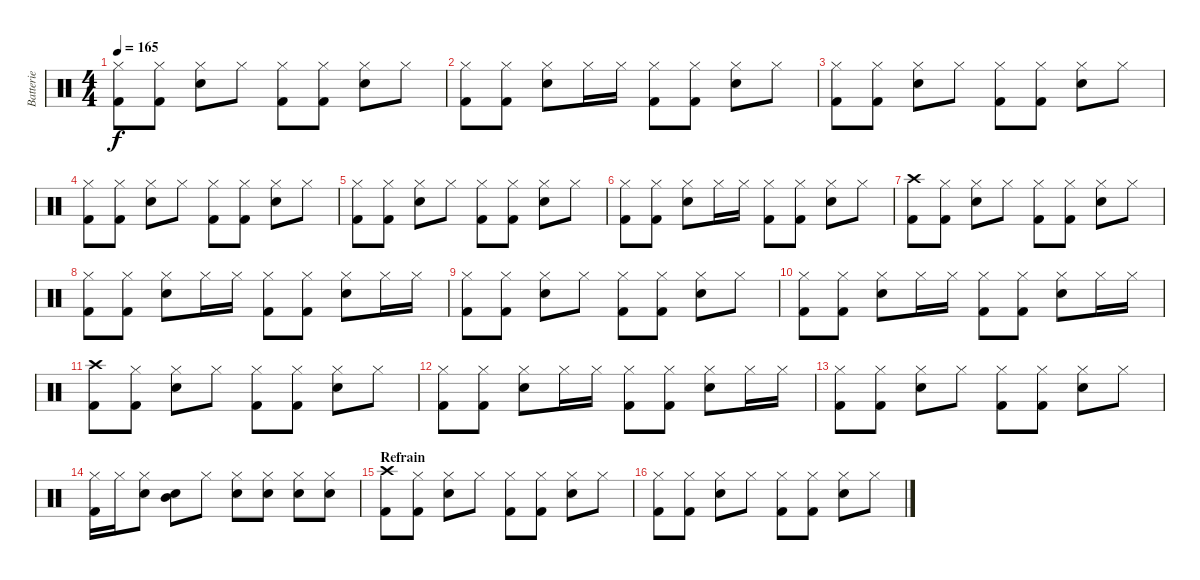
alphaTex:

\track ("Batterie" "Batterie") {instrument percussion}
\staff {score}
\articulation defaults
\ts (4 4)
\tempo 165
\clef neutral
\ks c
("Hi-Hat (closed)" "Kick (hit) 2").8{dy f} ("Hi-Hat (closed)" "Kick (hit) 2").8 ("Hi-Hat (closed)" "Electric Snare (hit)").8 "Hi-Hat (closed)".8 ("Hi-Hat (closed)" "Kick (hit) 2").8 ("Hi-Hat (closed)" "Kick (hit) 2").8 ("Hi-Hat (closed)" "Electric Snare (hit)").8 "Hi-Hat (closed)".8 |
("Hi-Hat (closed)" "Kick (hit) 2").8 ("Hi-Hat (closed)" "Kick (hit) 2").8 ("Hi-Hat (closed)" "Electric Snare (hit)").8 "Hi-Hat (closed)".16 "Hi-Hat (closed)".16 ("Hi-Hat (closed)" "Kick (hit) 2").8 ("Hi-Hat (closed)" "Kick (hit) 2").8 ("Hi-Hat (closed)" "Electric Snare (hit)").8 "Hi-Hat (closed)".8 |
("Hi-Hat (closed)" "Kick (hit) 2").8 ("Hi-Hat (closed)" "Kick (hit) 2").8 ("Hi-Hat (closed)" "Electric Snare (hit)").8 "Hi-Hat (closed)".8 ("Hi-Hat (closed)" "Kick (hit) 2").8 ("Hi-Hat (closed)" "Kick (hit) 2").8 ("Hi-Hat (closed)" "Electric Snare (hit)").8 "Hi-Hat (closed)".8 |
("Hi-Hat (closed)" "Kick (hit) 2").8 ("Hi-Hat (closed)" "Kick (hit) 2").8 ("Hi-Hat (closed)" "Electric Snare (hit)").8 "Hi-Hat (closed)".8 ("Hi-Hat (closed)" "Kick (hit) 2").8 ("Hi-Hat (closed)" "Kick (hit) 2").8 ("Hi-Hat (closed)" "Electric Snare (hit)").8 "Hi-Hat (closed)".8 |
("Hi-Hat (closed)" "Kick (hit) 2").8 ("Hi-Hat (closed)" "Kick (hit) 2").8 ("Hi-Hat (closed)" "Electric Snare (hit)").8 "Hi-Hat (closed)".8 ("Hi-Hat (closed)" "Kick (hit) 2").8 ("Hi-Hat (closed)" "Kick (hit) 2").8 ("Hi-Hat (closed)" "Electric Snare (hit)").8 "Hi-Hat (closed)".8 |
("Hi-Hat (closed)" "Kick (hit) 2").8 ("Hi-Hat (closed)" "Kick (hit) 2").8 ("Hi-Hat (closed)" "Electric Snare (hit)").8 "Hi-Hat (closed)".16 "Hi-Hat (closed)".16 ("Hi-Hat (closed)" "Kick (hit) 2").8 ("Hi-Hat (closed)" "Kick (hit) 2").8 ("Hi-Hat (closed)" "Electric Snare (hit)").8 "Hi-Hat (closed)".8 |
("Crash high (hit)" "Kick (hit) 2").8 ("Hi-Hat (closed)" "Kick (hit) 2").8 ("Hi-Hat (closed)" "Electric Snare (hit)").8 "Hi-Hat (closed)".8 ("Hi-Hat (closed)" "Kick (hit) 2").8 ("Hi-Hat (closed)" "Kick (hit) 2").8 ("Hi-Hat (closed)" "Electric Snare (hit)").8 "Hi-Hat (closed)".8 |
("Hi-Hat (closed)" "Kick (hit) 2").8 ("Hi-Hat (closed)" "Kick (hit) 2").8 ("Hi-Hat (closed)" "Electric Snare (hit)").8 "Hi-Hat (closed)".16 "Hi-Hat (closed)".16 ("Hi-Hat (closed)" "Kick (hit) 2").8 ("Hi-Hat (closed)" "Kick (hit) 2").8 ("Hi-Hat (closed)" "Electric Snare (hit)").8 "Hi-Hat (closed)".16 "Hi-Hat (closed)".16 |
("Hi-Hat (closed)" "Kick (hit) 2").8 ("Hi-Hat (closed)" "Kick (hit) 2").8 ("Hi-Hat (closed)" "Electric Snare (hit)").8 "Hi-Hat (closed)".8 ("Hi-Hat (closed)" "Kick (hit) 2").8 ("Hi-Hat (closed)" "Kick (hit) 2").8 ("Hi-Hat (closed)" "Electric Snare (hit)").8 "Hi-Hat (closed)".8 |
("Hi-Hat (closed)" "Kick (hit) 2").8 ("Hi-Hat (closed)" "Kick (hit) 2").8 ("Hi-Hat (closed)" "Electric Snare (hit)").8 "Hi-Hat (closed)".16 "Hi-Hat (closed)".16 ("Hi-Hat (closed)" "Kick (hit) 2").8 ("Hi-Hat (closed)" "Kick (hit) 2").8 ("Hi-Hat (closed)" "Electric Snare (hit)").8 "Hi-Hat (closed)".16 "Hi-Hat (closed)".16 |
("Crash high (hit)" "Kick (hit) 2").8 ("Hi-Hat (closed)" "Kick (hit) 2").8 ("Hi-Hat (closed)" "Electric Snare (hit)").8 "Hi-Hat (closed)".8 ("Hi-Hat (closed)" "Kick (hit) 2").8 ("Hi-Hat (closed)" "Kick (hit) 2").8 ("Hi-Hat (closed)" "Electric Snare (hit)").8 "Hi-Hat (closed)".8 |
("Hi-Hat (closed)" "Kick (hit) 2").8 ("Hi-Hat (closed)" "Kick (hit) 2").8 ("Hi-Hat (closed)" "Electric Snare (hit)").8 "Hi-Hat (closed)".16 "Hi-Hat (closed)".16 ("Hi-Hat (closed)" "Kick (hit) 2").8 ("Hi-Hat (closed)" "Kick (hit) 2").8 ("Hi-Hat (closed)" "Electric Snare (hit)").8 "Hi-Hat (closed)".16 "Hi-Hat (closed)".16 |
("Hi-Hat (closed)" "Kick (hit) 2").8 ("Hi-Hat (closed)" "Kick (hit) 2").8 ("Hi-Hat (closed)" "Electric Snare (hit)").8 "Hi-Hat (closed)".8 ("Hi-Hat (closed)" "Kick (hit) 2").8 ("Hi-Hat (closed)" "Kick (hit) 2").8 ("Hi-Hat (closed)" "Electric Snare (hit)").8 "Hi-Hat (closed)".8 |
("Hi-Hat (closed)" "Kick (hit) 2").16 "Hi-Hat (closed)".16 ("Hi-Hat (closed)" "Electric Snare (hit)").8 ("Mid Tom (hit)" "Electric Snare (hit)").8 "Hi-Hat (closed)".8 ("Hi-Hat (closed)" "Electric Snare (hit)").8 ("Hi-Hat (closed)" "Electric Snare (hit)").8 ("Hi-Hat (closed)" "Electric Snare (hit)").8 ("Hi-Hat (closed)" "Electric Snare (hit)").8 |
\section ("" "Refrain")
("Crash high (hit)" "Kick (hit) 2").8 ("Hi-Hat (closed)" "Kick (hit) 2").8 ("Hi-Hat (closed)" "Electric Snare (hit)").8 "Hi-Hat (closed)".8 ("Hi-Hat (closed)" "Kick (hit) 2").8 ("Hi-Hat (closed)" "Kick (hit) 2").8 ("Hi-Hat (closed)" "Electric Snare (hit)").8 "Hi-Hat (closed)".8 |
("Hi-Hat (closed)" "Kick (hit) 2").8 ("Hi-Hat (closed)" "Kick (hit) 2").8 ("Hi-Hat (closed)" "Electric Snare (hit)").8 "Hi-Hat (closed)".8 ("Hi-Hat (closed)" "Kick (hit) 2").8 ("Hi-Hat (closed)" "Kick (hit) 2").8 ("Hi-Hat (closed)" "Electric Snare (hit)").8 "Hi-Hat (closed)".8
